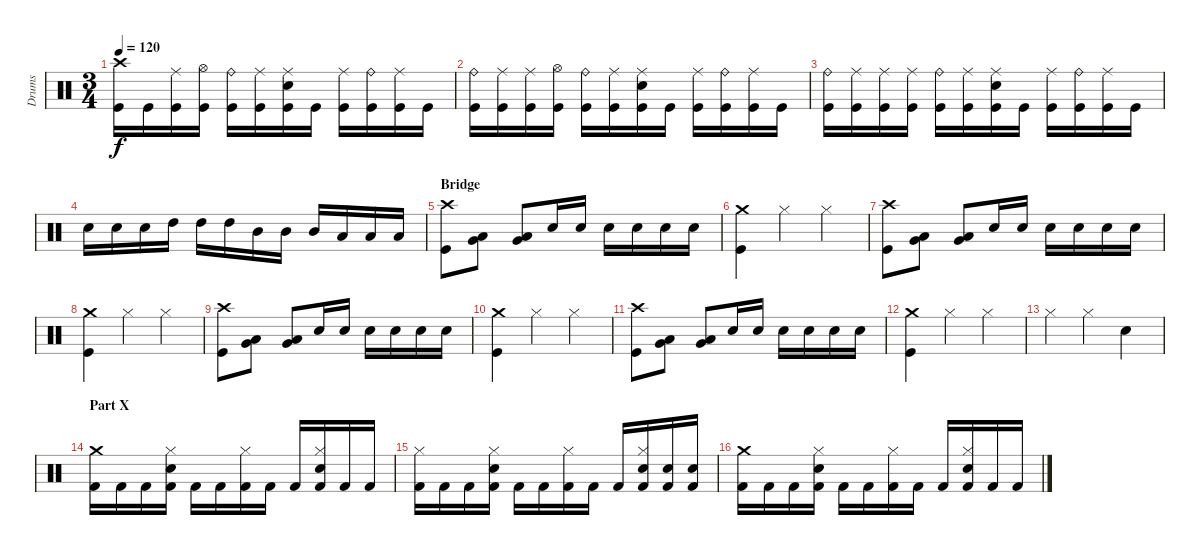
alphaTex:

\track ("Drums" "Drums") {instrument percussion}
\staff {score}
\articulation defaults
\ts (3 4)
\tempo 120
\clef neutral
\ks c
("Crash high (hit)" "Kick (hit)").16{dy f} "Kick (hit)".16 ("Ride (middle)" "Kick (hit)").16 ("Hi-Hat (open)" "Kick (hit)").16 ("Ride (bell)" "Kick (hit)").16 ("Ride (middle)" "Kick (hit)").16 ("Ride (middle)" "Electric Snare (hit)" "Kick (hit)").16 "Kick (hit)".16 ("Ride (middle)" "Kick (hit)").16 ("Ride (bell)" "Kick (hit)").16 ("Ride (middle)" "Kick (hit)").16 "Kick (hit)".16 |
("Ride (bell)" "Kick (hit)").16 ("Ride (middle)" "Kick (hit)").16 ("Ride (middle)" "Kick (hit)").16 ("Hi-Hat (open)" "Kick (hit)").16 ("Ride (bell)" "Kick (hit)").16 ("Ride (middle)" "Kick (hit)").16 ("Ride (middle)" "Electric Snare (hit)" "Kick (hit)").16 "Kick (hit)".16 ("Ride (middle)" "Kick (hit)").16 ("Ride (bell)" "Kick (hit)").16 ("Ride (middle)" "Kick (hit)").16 "Kick (hit)".16 |
("Ride (bell)" "Kick (hit)").16 ("Ride (middle)" "Kick (hit)").16 ("Ride (middle)" "Kick (hit)").16 ("Ride (middle)" "Kick (hit)").16 ("Ride (bell)" "Kick (hit)").16 ("Ride (middle)" "Kick (hit)").16 ("Ride (middle)" "Electric Snare (hit)" "Kick (hit)").16 "Kick (hit)".16 ("Ride (middle)" "Kick (hit)").16 ("Ride (bell)" "Kick (hit)").16 ("Ride (middle)" "Kick (hit)").16 "Kick (hit)".16 |
"Electric Snare (hit)".16 "Electric Snare (hit)".16 "Electric Snare (hit)".16 "High Tom (hit)".16 "High Tom (hit)".16 "High Tom (hit)".16 "Mid Tom (hit)".16 "Mid Tom (hit)".16 "Mid Tom (hit)".16 "Low Tom (hit)".16 "Low Tom (hit)".16 "Low Tom (hit)".16 |
\section ("" "Bridge")
("Crash high (hit)" "Kick (hit)").8 ("Very Low Tom (hit)" "Low Tom (hit)").8 ("Very Low Tom (hit)" "Low Tom (hit)").8 "Electric Snare (hit)".16 "Electric Snare (hit)".16 "Electric Snare (hit)".16 "Electric Snare (hit)".16 "Electric Snare (hit)".16 "Electric Snare (hit)".16 |
("Crash medium (hit)" "Kick (hit)").4 "Hi-Hat (closed)".4 "Hi-Hat (closed)".4 |
("Crash high (hit)" "Kick (hit)").8 ("Very Low Tom (hit)" "Low Tom (hit)").8 ("Very Low Tom (hit)" "Low Tom (hit)").8 "Electric Snare (hit)".16 "Electric Snare (hit)".16 "Electric Snare (hit)".16 "Electric Snare (hit)".16 "Electric Snare (hit)".16 "Electric Snare (hit)".16 |
("Crash medium (hit)" "Kick (hit)").4 "Hi-Hat (closed)".4 "Hi-Hat (closed)".4 |
("Crash high (hit)" "Kick (hit)").8 ("Very Low Tom (hit)" "Low Tom (hit)").8 ("Very Low Tom (hit)" "Low Tom (hit)").8 "Electric Snare (hit)".16 "Electric Snare (hit)".16 "Electric Snare (hit)".16 "Electric Snare (hit)".16 "Electric Snare (hit)".16 "Electric Snare (hit)".16 |
("Crash medium (hit)" "Kick (hit)").4 "Hi-Hat (closed)".4 "Hi-Hat (closed)".4 |
("Crash high (hit)" "Kick (hit)").8 ("Very Low Tom (hit)" "Low Tom (hit)").8 ("Very Low Tom (hit)" "Low Tom (hit)").8 "Electric Snare (hit)".16 "Electric Snare (hit)".16 "Electric Snare (hit)".16 "Electric Snare (hit)".16 "Electric Snare (hit)".16 "Electric Snare (hit)".16 |
("Crash medium (hit)" "Kick (hit)").4 "Hi-Hat (closed)".4 "Hi-Hat (closed)".4 |
"Hi-Hat (closed)".4 "Hi-Hat (closed)".4 "Electric Snare (hit)".4 |
\section ("" "Part X")
("Crash medium (hit)" "Kick (hit) 2").16 "Kick (hit) 2".16 "Kick (hit) 2".16 ("Hi-Hat (closed)" "Electric Snare (hit)" "Kick (hit) 2").16 "Kick (hit) 2".16 "Kick (hit) 2".16 ("Hi-Hat (closed)" "Kick (hit) 2").16 "Kick (hit) 2".16 "Kick (hit) 2".16 ("Hi-Hat (closed)" "Electric Snare (hit)" "Kick (hit) 2").16 "Kick (hit) 2".16 "Kick (hit) 2".16 |
("Hi-Hat (closed)" "Kick (hit) 2").16 "Kick (hit) 2".16 "Kick (hit) 2".16 ("Hi-Hat (closed)" "Electric Snare (hit)" "Kick (hit) 2").16 "Kick (hit) 2".16 "Kick (hit) 2".16 ("Hi-Hat (closed)" "Kick (hit) 2").16 "Kick (hit) 2".16 "Kick (hit) 2".16 ("Hi-Hat (closed)" "Electric Snare (hit)" "Kick (hit) 2").16 ("Electric Snare (hit)" "Kick (hit) 2").16 ("Electric Snare (hit)" "Kick (hit) 2").16 |
("Crash medium (hit)" "Kick (hit) 2").16 "Kick (hit) 2".16 "Kick (hit) 2".16 ("Hi-Hat (closed)" "Electric Snare (hit)" "Kick (hit) 2").16 "Kick (hit) 2".16 "Kick (hit) 2".16 ("Hi-Hat (closed)" "Kick (hit) 2").16 "Kick (hit) 2".16 "Kick (hit) 2".16 ("Hi-Hat (closed)" "Electric Snare (hit)" "Kick (hit) 2").16 "Kick (hit) 2".16 "Kick (hit) 2".16
